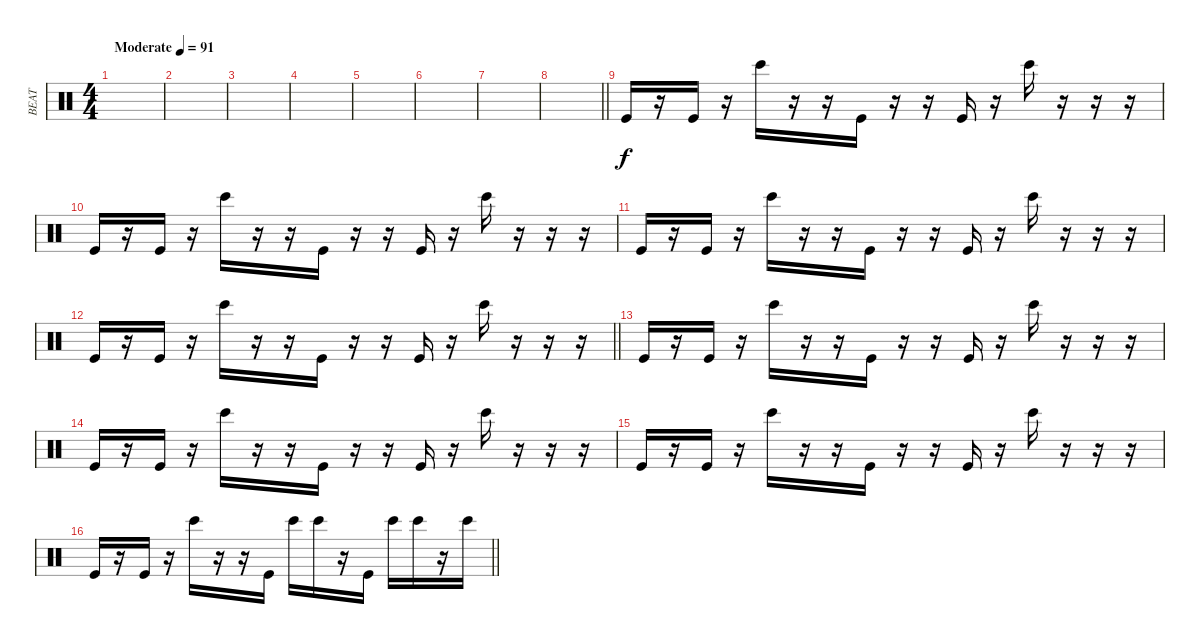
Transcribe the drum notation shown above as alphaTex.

\track ("BEAT" "BEAT") {instrument percussion}
\staff {score}
\articulation defaults
\ts (4 4)
\tempo (91 "Moderate")
\clef neutral
\ks c
|
|
|
|
|
|
|
\barLineRight lightlight
|
\section ("" "")
"Kick (hit)".16 r.16 "Kick (hit)".16 r.16 "Bongo High (hit)".16 r.16 r.16 "Kick (hit)".16 r.16 r.16 "Kick (hit)".16 r.16 "Bongo High (hit)".16 r.16 r.16 r.16 |
"Kick (hit)".16 r.16 "Kick (hit)".16 r.16 "Bongo High (hit)".16 r.16 r.16 "Kick (hit)".16 r.16 r.16 "Kick (hit)".16 r.16 "Bongo High (hit)".16 r.16 r.16 r.16 |
"Kick (hit)".16 r.16 "Kick (hit)".16 r.16 "Bongo High (hit)".16 r.16 r.16 "Kick (hit)".16 r.16 r.16 "Kick (hit)".16 r.16 "Bongo High (hit)".16 r.16 r.16 r.16 |
\barLineRight lightlight "Kick (hit)".16
r.16 "Kick (hit)".16 r.16 "Bongo High (hit)".16 r.16 r.16 "Kick (hit)".16 r.16 r.16 "Kick (hit)".16 r.16 "Bongo High (hit)".16 r.16 r.16 r.16 |
"Kick (hit)".16 r.16 "Kick (hit)".16 r.16 "Bongo High (hit)".16 r.16 r.16 "Kick (hit)".16 r.16 r.16 "Kick (hit)".16 r.16 "Bongo High (hit)".16 r.16 r.16 r.16 |
"Kick (hit)".16 r.16 "Kick (hit)".16 r.16 "Bongo High (hit)".16 r.16 r.16 "Kick (hit)".16 r.16 r.16 "Kick (hit)".16 r.16 "Bongo High (hit)".16 r.16 r.16 r.16 |
"Kick (hit)".16 r.16 "Kick (hit)".16 r.16 "Bongo High (hit)".16 r.16 r.16 "Kick (hit)".16 r.16 r.16 "Kick (hit)".16 r.16 "Bongo High (hit)".16 r.16 r.16 r.16 |
\barLineRight lightlight "Kick (hit)".16
r.16 "Kick (hit)".16 r.16 "Bongo High (hit)".16 r.16 r.16 "Kick (hit)".16 "Bongo High (hit)".16 "Bongo High (hit)".16 r.16 "Kick (hit)".16 "Bongo High (hit)".16 "Bongo High (hit)".16 r.16 "Bongo High (hit)".16
